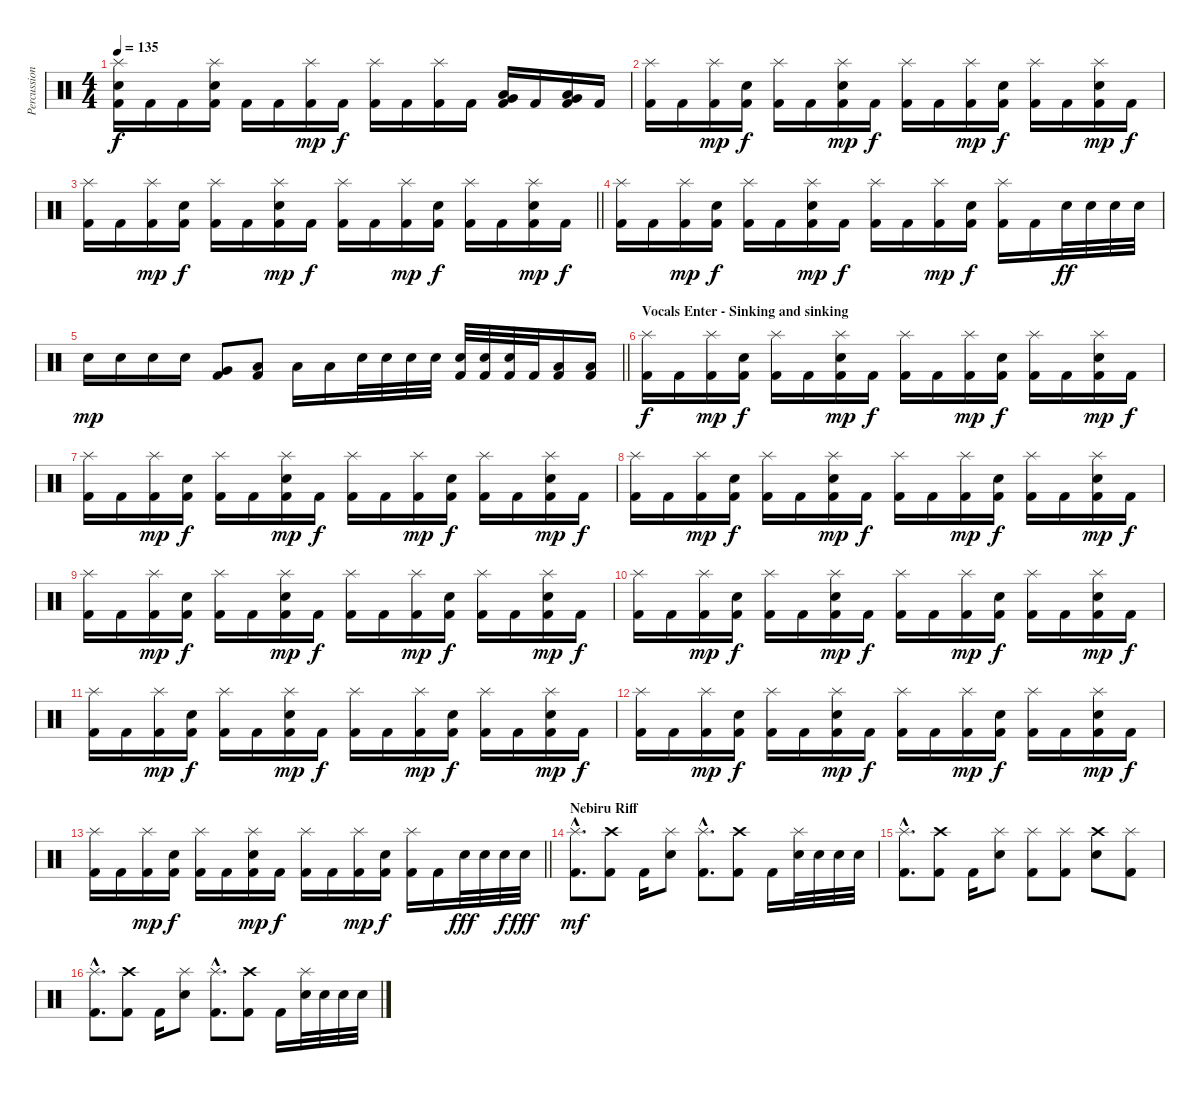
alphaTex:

\track ("Percussion" "Percussion") {instrument percussion}
\staff {score}
\articulation defaults
\ts (4 4)
\tempo 135
\clef neutral
\ks c
("Splash (hit)" "Electric Snare (hit)" "Kick (hit) 2").16{dy f} "Kick (hit) 2".16 "Kick (hit) 2".16 ("Splash (hit)" "Electric Snare (hit)" "Kick (hit) 2").16 "Kick (hit) 2".16 "Kick (hit) 2".16 ("Splash (hit)" "Kick (hit) 2").16{dy mp} "Kick (hit) 2".16{dy f} ("Splash (hit)" "Kick (hit) 2").16 "Kick (hit) 2".16 ("Splash (hit)" "Kick (hit) 2").16 "Kick (hit) 2".16 ("Very Low Tom (hit)" "Low Floor Tom (hit)" "Kick (hit) 2").16 "Kick (hit) 2".16 ("Very Low Tom (hit)" "Low Floor Tom (hit)" "Kick (hit) 2").16 "Kick (hit) 2".16 |
("Splash (hit)" "Kick (hit) 2").16 "Kick (hit) 2".16 ("Splash (hit)" "Kick (hit) 2").16{dy mp} ("Electric Snare (hit)" "Kick (hit) 2").16{dy f} ("Splash (hit)" "Kick (hit) 2").16 "Kick (hit) 2".16 ("Splash (hit)" "Electric Snare (hit)" "Kick (hit) 2").16{dy mp} "Kick (hit) 2".16{dy f} ("Splash (hit)" "Kick (hit) 2").16 "Kick (hit) 2".16 ("Splash (hit)" "Kick (hit) 2").16{dy mp} ("Electric Snare (hit)" "Kick (hit) 2").16{dy f} ("Splash (hit)" "Kick (hit) 2").16 "Kick (hit) 2".16 ("Splash (hit)" "Electric Snare (hit)" "Kick (hit) 2").16{dy mp} "Kick (hit) 2".16{dy f} |
\barLineRight lightlight
("Splash (hit)" "Kick (hit) 2").16 "Kick (hit) 2".16 ("Splash (hit)" "Kick (hit) 2").16{dy mp} ("Electric Snare (hit)" "Kick (hit) 2").16{dy f} ("Splash (hit)" "Kick (hit) 2").16 "Kick (hit) 2".16 ("Splash (hit)" "Electric Snare (hit)" "Kick (hit) 2").16{dy mp} "Kick (hit) 2".16{dy f} ("Splash (hit)" "Kick (hit) 2").16 "Kick (hit) 2".16 ("Splash (hit)" "Kick (hit) 2").16{dy mp} ("Electric Snare (hit)" "Kick (hit) 2").16{dy f} ("Splash (hit)" "Kick (hit) 2").16 "Kick (hit) 2".16 ("Splash (hit)" "Electric Snare (hit)" "Kick (hit) 2").16{dy mp} "Kick (hit) 2".16{dy f} |
\section ("" "")
("Splash (hit)" "Kick (hit) 2").16 "Kick (hit) 2".16 ("Splash (hit)" "Kick (hit) 2").16{dy mp} ("Electric Snare (hit)" "Kick (hit) 2").16{dy f} ("Splash (hit)" "Kick (hit) 2").16 "Kick (hit) 2".16 ("Splash (hit)" "Electric Snare (hit)" "Kick (hit) 2").16{dy mp} "Kick (hit) 2".16{dy f} ("Splash (hit)" "Kick (hit) 2").16 "Kick (hit) 2".16 ("Splash (hit)" "Kick (hit) 2").16{dy mp} ("Electric Snare (hit)" "Kick (hit) 2").16{dy f} ("Splash (hit)" "Kick (hit) 2").16 "Kick (hit) 2".16 "Electric Snare (hit)".32{dy ff} "Electric Snare (hit)".32 "Electric Snare (hit)".32 "Electric Snare (hit)".32 |
\barLineRight lightlight "Electric Snare (hit)".16{dy mp} "Electric Snare (hit)".16 "Electric Snare (hit)".16 "Electric Snare (hit)".16
("Very Low Tom (hit)" "Kick (hit) 2").8 ("Low Tom (hit)" "Kick (hit) 2").8 "Low Floor Tom (hit)".16 "Low Tom (hit)".16 "Electric Snare (hit)".32 "Electric Snare (hit)".32 "Electric Snare (hit)".32 "Electric Snare (hit)".32 ("Electric Snare (hit)" "Kick (hit) 2").32 ("Electric Snare (hit)" "Kick (hit) 2").32 ("Electric Snare (hit)" "Kick (hit) 2").32 "Kick (hit) 2".32 ("Low Tom (hit)" "Kick (hit) 2").16 ("Low Floor Tom (hit)" "Kick (hit) 2").16 |
\section ("" "Vocals Enter - Sinking and sinking")
("Splash (hit)" "Kick (hit) 2").16{dy f} "Kick (hit) 2".16 ("Splash (hit)" "Kick (hit) 2").16{dy mp} ("Electric Snare (hit)" "Kick (hit) 2").16{dy f} ("Splash (hit)" "Kick (hit) 2").16 "Kick (hit) 2".16 ("Splash (hit)" "Electric Snare (hit)" "Kick (hit) 2").16{dy mp} "Kick (hit) 2".16{dy f} ("Splash (hit)" "Kick (hit) 2").16 "Kick (hit) 2".16 ("Splash (hit)" "Kick (hit) 2").16{dy mp} ("Electric Snare (hit)" "Kick (hit) 2").16{dy f} ("Splash (hit)" "Kick (hit) 2").16 "Kick (hit) 2".16 ("Splash (hit)" "Electric Snare (hit)" "Kick (hit) 2").16{dy mp} "Kick (hit) 2".16{dy f} |
("Splash (hit)" "Kick (hit) 2").16 "Kick (hit) 2".16 ("Splash (hit)" "Kick (hit) 2").16{dy mp} ("Electric Snare (hit)" "Kick (hit) 2").16{dy f} ("Splash (hit)" "Kick (hit) 2").16 "Kick (hit) 2".16 ("Splash (hit)" "Electric Snare (hit)" "Kick (hit) 2").16{dy mp} "Kick (hit) 2".16{dy f} ("Splash (hit)" "Kick (hit) 2").16 "Kick (hit) 2".16 ("Splash (hit)" "Kick (hit) 2").16{dy mp} ("Electric Snare (hit)" "Kick (hit) 2").16{dy f} ("Splash (hit)" "Kick (hit) 2").16 "Kick (hit) 2".16 ("Splash (hit)" "Electric Snare (hit)" "Kick (hit) 2").16{dy mp} "Kick (hit) 2".16{dy f} |
("Splash (hit)" "Kick (hit) 2").16 "Kick (hit) 2".16 ("Splash (hit)" "Kick (hit) 2").16{dy mp} ("Electric Snare (hit)" "Kick (hit) 2").16{dy f} ("Splash (hit)" "Kick (hit) 2").16 "Kick (hit) 2".16 ("Splash (hit)" "Electric Snare (hit)" "Kick (hit) 2").16{dy mp} "Kick (hit) 2".16{dy f} ("Splash (hit)" "Kick (hit) 2").16 "Kick (hit) 2".16 ("Splash (hit)" "Kick (hit) 2").16{dy mp} ("Electric Snare (hit)" "Kick (hit) 2").16{dy f} ("Splash (hit)" "Kick (hit) 2").16 "Kick (hit) 2".16 ("Splash (hit)" "Electric Snare (hit)" "Kick (hit) 2").16{dy mp} "Kick (hit) 2".16{dy f} |
("Splash (hit)" "Kick (hit) 2").16 "Kick (hit) 2".16 ("Splash (hit)" "Kick (hit) 2").16{dy mp} ("Electric Snare (hit)" "Kick (hit) 2").16{dy f} ("Splash (hit)" "Kick (hit) 2").16 "Kick (hit) 2".16 ("Splash (hit)" "Electric Snare (hit)" "Kick (hit) 2").16{dy mp} "Kick (hit) 2".16{dy f} ("Splash (hit)" "Kick (hit) 2").16 "Kick (hit) 2".16 ("Splash (hit)" "Kick (hit) 2").16{dy mp} ("Electric Snare (hit)" "Kick (hit) 2").16{dy f} ("Splash (hit)" "Kick (hit) 2").16 "Kick (hit) 2".16 ("Splash (hit)" "Electric Snare (hit)" "Kick (hit) 2").16{dy mp} "Kick (hit) 2".16{dy f} |
("Splash (hit)" "Kick (hit) 2").16 "Kick (hit) 2".16 ("Splash (hit)" "Kick (hit) 2").16{dy mp} ("Electric Snare (hit)" "Kick (hit) 2").16{dy f} ("Splash (hit)" "Kick (hit) 2").16 "Kick (hit) 2".16 ("Splash (hit)" "Electric Snare (hit)" "Kick (hit) 2").16{dy mp} "Kick (hit) 2".16{dy f} ("Splash (hit)" "Kick (hit) 2").16 "Kick (hit) 2".16 ("Splash (hit)" "Kick (hit) 2").16{dy mp} ("Electric Snare (hit)" "Kick (hit) 2").16{dy f} ("Splash (hit)" "Kick (hit) 2").16 "Kick (hit) 2".16 ("Splash (hit)" "Electric Snare (hit)" "Kick (hit) 2").16{dy mp} "Kick (hit) 2".16{dy f} |
("Splash (hit)" "Kick (hit) 2").16 "Kick (hit) 2".16 ("Splash (hit)" "Kick (hit) 2").16{dy mp} ("Electric Snare (hit)" "Kick (hit) 2").16{dy f} ("Splash (hit)" "Kick (hit) 2").16 "Kick (hit) 2".16 ("Splash (hit)" "Electric Snare (hit)" "Kick (hit) 2").16{dy mp} "Kick (hit) 2".16{dy f} ("Splash (hit)" "Kick (hit) 2").16 "Kick (hit) 2".16 ("Splash (hit)" "Kick (hit) 2").16{dy mp} ("Electric Snare (hit)" "Kick (hit) 2").16{dy f} ("Splash (hit)" "Kick (hit) 2").16 "Kick (hit) 2".16 ("Splash (hit)" "Electric Snare (hit)" "Kick (hit) 2").16{dy mp} "Kick (hit) 2".16{dy f} |
("Splash (hit)" "Kick (hit) 2").16 "Kick (hit) 2".16 ("Splash (hit)" "Kick (hit) 2").16{dy mp} ("Electric Snare (hit)" "Kick (hit) 2").16{dy f} ("Splash (hit)" "Kick (hit) 2").16 "Kick (hit) 2".16 ("Splash (hit)" "Electric Snare (hit)" "Kick (hit) 2").16{dy mp} "Kick (hit) 2".16{dy f} ("Splash (hit)" "Kick (hit) 2").16 "Kick (hit) 2".16 ("Splash (hit)" "Kick (hit) 2").16{dy mp} ("Electric Snare (hit)" "Kick (hit) 2").16{dy f} ("Splash (hit)" "Kick (hit) 2").16 "Kick (hit) 2".16 ("Splash (hit)" "Electric Snare (hit)" "Kick (hit) 2").16{dy mp} "Kick (hit) 2".16{dy f} |
\barLineRight lightlight
("Splash (hit)" "Kick (hit) 2").16 "Kick (hit) 2".16 ("Splash (hit)" "Kick (hit) 2").16{dy mp} ("Electric Snare (hit)" "Kick (hit) 2").16{dy f} ("Splash (hit)" "Kick (hit) 2").16 "Kick (hit) 2".16 ("Splash (hit)" "Electric Snare (hit)" "Kick (hit) 2").16{dy mp} "Kick (hit) 2".16{dy f} ("Splash (hit)" "Kick (hit) 2").16 "Kick (hit) 2".16 ("Splash (hit)" "Kick (hit) 2").16{dy mp} ("Electric Snare (hit)" "Kick (hit) 2").16{dy f} ("Splash (hit)" "Kick (hit) 2").16 "Kick (hit) 2".16 "Electric Snare (hit)".32{dy fff} "Electric Snare (hit)".32 "Electric Snare (hit)".32{dy f} "Electric Snare (hit)".32{dy fff} |
\section ("" "Nebiru Riff")
("Splash (hit)"{hac} "Kick (hit) 2"{hac}).8{d dy mf} ("Crash high (hit)" "Kick (hit) 2").8 "Kick (hit) 2".16 ("Splash (hit)" "Electric Snare (hit)").8 ("Splash (hit)"{hac} "Kick (hit) 2"{hac}).8{d} ("Crash high (hit)" "Kick (hit) 2").8 "Kick (hit) 2".16 ("Splash (hit)" "Electric Snare (hit)").32 "Electric Snare (hit)".32 "Electric Snare (hit)".32 "Electric Snare (hit)".32 |
("Splash (hit)"{hac} "Kick (hit) 2"{hac}).8{d} ("Crash high (hit)" "Kick (hit) 2").8 "Kick (hit) 2".16 ("Splash (hit)" "Electric Snare (hit)").8 ("Splash (hit)" "Kick (hit) 2").8 ("Splash (hit)" "Kick (hit) 2").8 ("Crash high (hit)" "Electric Snare (hit)").8 ("Splash (hit)" "Kick (hit) 2").8 |
("Splash (hit)"{hac} "Kick (hit) 2"{hac}).8{d} ("Crash high (hit)" "Kick (hit) 2").8 "Kick (hit) 2".16 ("Splash (hit)" "Electric Snare (hit)").8 ("Splash (hit)"{hac} "Kick (hit) 2"{hac}).8{d} ("Crash high (hit)" "Kick (hit) 2").8 "Kick (hit) 2".16 ("Splash (hit)" "Electric Snare (hit)").32 "Electric Snare (hit)".32 "Electric Snare (hit)".32 "Electric Snare (hit)".32
